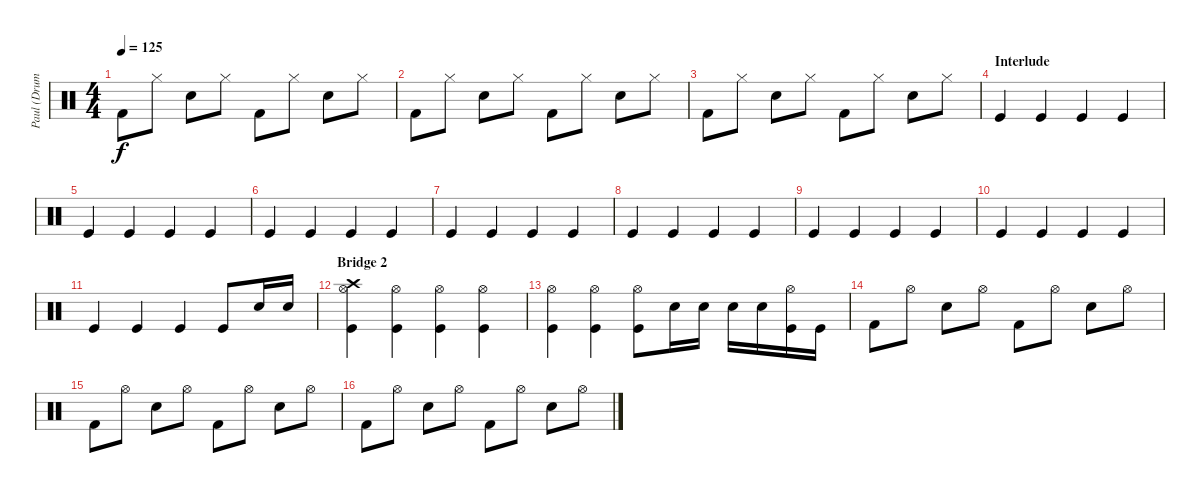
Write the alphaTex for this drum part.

\track ("Paul (Drums)" "Paul (Drum") {instrument percussion}
\staff {score}
\articulation defaults
\ts (4 4)
\tempo 125
\clef neutral
\ks c "Kick (hit) 2".8{dy f} "Hi-Hat (closed)".8 "Snare (hit) 2".8 "Hi-Hat (closed)".8 "Kick (hit) 2".8 "Hi-Hat (closed)".8 "Snare (hit) 2".8 "Hi-Hat (closed)".8
|
"Kick (hit) 2".8 "Hi-Hat (closed)".8 "Snare (hit) 2".8 "Hi-Hat (closed)".8 "Kick (hit) 2".8 "Hi-Hat (closed)".8 "Snare (hit) 2".8 "Hi-Hat (closed)".8 |
"Kick (hit) 2".8 "Hi-Hat (closed)".8 "Snare (hit) 2".8 "Hi-Hat (closed)".8 "Kick (hit) 2".8 "Hi-Hat (closed)".8 "Snare (hit) 2".8 "Hi-Hat (closed)".8 |
\section ("" "Interlude")
"Kick (hit)".4 "Kick (hit)".4 "Kick (hit)".4 "Kick (hit)".4 |
"Kick (hit)".4 "Kick (hit)".4 "Kick (hit)".4 "Kick (hit)".4 |
"Kick (hit)".4 "Kick (hit)".4 "Kick (hit)".4 "Kick (hit)".4 |
"Kick (hit)".4 "Kick (hit)".4 "Kick (hit)".4 "Kick (hit)".4 |
"Kick (hit)".4 "Kick (hit)".4 "Kick (hit)".4 "Kick (hit)".4 |
"Kick (hit)".4 "Kick (hit)".4 "Kick (hit)".4 "Kick (hit)".4 |
"Kick (hit)".4 "Kick (hit)".4 "Kick (hit)".4 "Kick (hit)".4 |
"Kick (hit)".4 "Kick (hit)".4 "Kick (hit)".4 "Kick (hit)".8 "Snare (hit) 2".16 "Snare (hit) 2".16 |
\section ("" "Bridge 2")
("Crash high (hit)" "Hi-Hat (open)" "Kick (hit)").4 ("Hi-Hat (open)" "Kick (hit)").4 ("Hi-Hat (open)" "Kick (hit)").4 ("Hi-Hat (open)" "Kick (hit)").4 |
("Hi-Hat (open)" "Kick (hit)").4 ("Hi-Hat (open)" "Kick (hit)").4 ("Hi-Hat (open)" "Kick (hit)").8 "Snare (hit) 2".16 "Snare (hit) 2".16 "Snare (hit) 2".16 "Snare (hit) 2".16 ("Hi-Hat (open)" "Kick (hit)").16 "Kick (hit)".16 |
"Kick (hit) 2".8 "Hi-Hat (open)".8 "Snare (hit) 2".8 "Hi-Hat (open)".8 "Kick (hit) 2".8 "Hi-Hat (open)".8 "Snare (hit) 2".8 "Hi-Hat (open)".8 |
"Kick (hit) 2".8 "Hi-Hat (open)".8 "Snare (hit) 2".8 "Hi-Hat (open)".8 "Kick (hit) 2".8 "Hi-Hat (open)".8 "Snare (hit) 2".8 "Hi-Hat (open)".8 |
"Kick (hit) 2".8 "Hi-Hat (open)".8 "Snare (hit) 2".8 "Hi-Hat (open)".8 "Kick (hit) 2".8 "Hi-Hat (open)".8 "Snare (hit) 2".8 "Hi-Hat (open)".8
